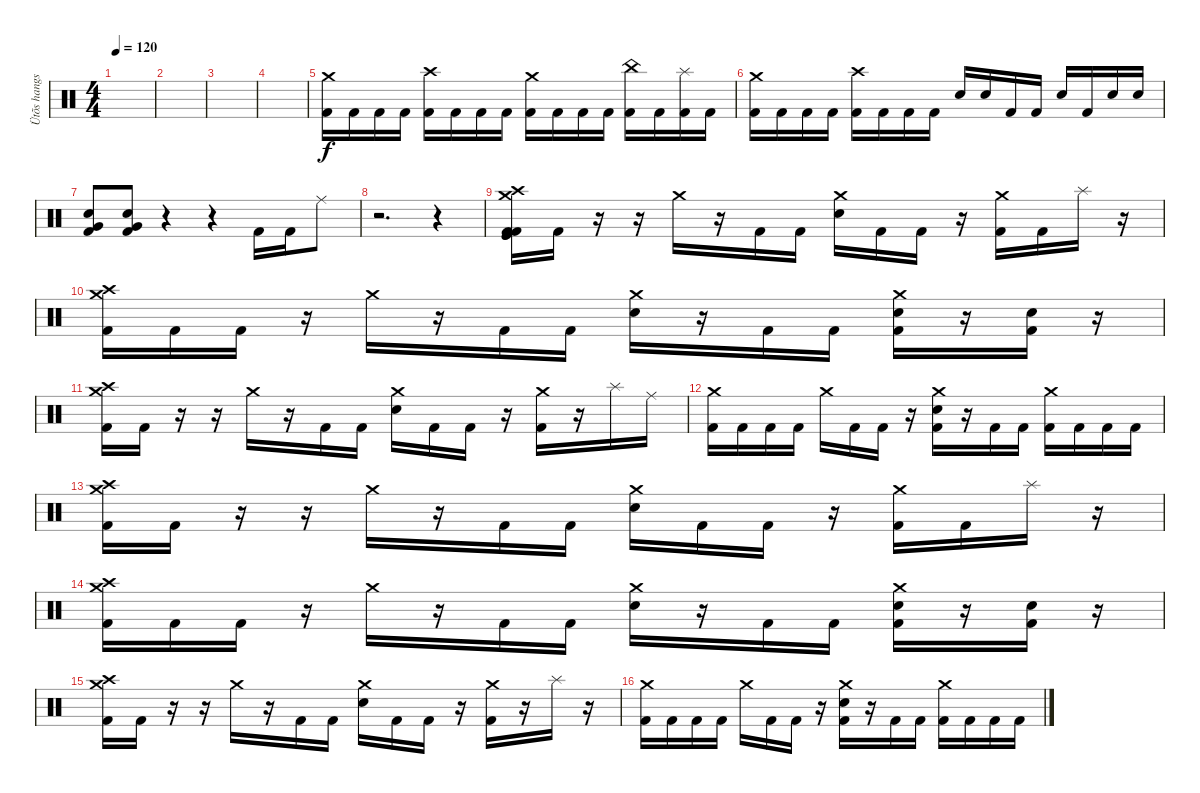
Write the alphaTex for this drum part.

\track ("Ütõs hangszer" "Ütõs hangs") {instrument percussion}
\staff {score}
\articulation defaults
\ts (4 4)
\tempo 120
\clef neutral
\ks c
|
|
|
|
("Crash medium (hit)" "Kick (hit) 2").16 "Kick (hit) 2".16 "Kick (hit) 2".16 "Kick (hit) 2".16 ("Crash high (hit)" "Kick (hit) 2").16 "Kick (hit) 2".16 "Kick (hit) 2".16 "Kick (hit) 2".16 ("Crash medium (hit)" "Kick (hit) 2").16 "Kick (hit) 2".16 "Kick (hit) 2".16 "Kick (hit) 2".16 ("China (hit)" "Kick (hit) 2").16 "Kick (hit) 2".16 ("Splash (hit)" "Kick (hit) 2").16 "Kick (hit) 2".16 |
("Crash medium (hit)" "Kick (hit) 2").16 "Kick (hit) 2".16 "Kick (hit) 2".16 "Kick (hit) 2".16 ("Crash high (hit)" "Kick (hit) 2").16 "Kick (hit) 2".16 "Kick (hit) 2".16 "Kick (hit) 2".16 "Electric Snare (hit)".16 "Electric Snare (hit)".16 "Kick (hit) 2".16 "Kick (hit) 2".16 "Electric Snare (hit)".16 "Kick (hit) 2".16 "Electric Snare (hit)".16 "Electric Snare (hit)".16 |
("Very Low Tom (hit)" "Electric Snare (hit)" "Kick (hit) 2").8 ("Very Low Tom (hit)" "Electric Snare (hit)" "Kick (hit) 2").8 r.4 r.4 "Kick (hit) 2".16 "Kick (hit) 2".16 "Ride (middle)".8 |
r.2{d} r.4 |
("Crash medium (hit)" "Crash high (hit)" "Kick (hit)" "Kick (hit) 2" "Kick (hit)" "Kick (hit) 2").16 "Kick (hit) 2".16 r.16 r.16 "Crash medium (hit)".16 r.16 "Kick (hit) 2".16 "Kick (hit) 2".16 ("Crash medium (hit)" "Electric Snare (hit)").16 "Kick (hit) 2".16 "Kick (hit) 2".16 r.16 ("Crash medium (hit)" "Kick (hit) 2").16 "Kick (hit) 2".16 "Splash (hit)".16 r.16 |
("Crash medium (hit)" "Crash high (hit)" "Kick (hit) 2").16 "Kick (hit) 2".16 "Kick (hit) 2".16 r.16 "Crash medium (hit)".16 r.16 "Kick (hit) 2".16 "Kick (hit) 2".16 ("Crash medium (hit)" "Electric Snare (hit)").16 r.16 "Kick (hit) 2".16 "Kick (hit) 2".16 ("Crash medium (hit)" "Electric Snare (hit)" "Kick (hit) 2").16 r.16 ("Electric Snare (hit)" "Kick (hit) 2").16 r.16 |
("Crash medium (hit)" "Crash high (hit)" "Kick (hit) 2").16 "Kick (hit) 2".16 r.16 r.16 "Crash medium (hit)".16 r.16 "Kick (hit) 2".16 "Kick (hit) 2".16 ("Crash medium (hit)" "Electric Snare (hit)").16 "Kick (hit) 2".16 "Kick (hit) 2".16 r.16 ("Crash medium (hit)" "Kick (hit) 2").16 r.16 "Splash (hit)".16 "Ride (middle)".16 |
("Crash medium (hit)" "Kick (hit) 2").16 "Kick (hit) 2".16 "Kick (hit) 2".16 "Kick (hit) 2".16 "Crash medium (hit)".16 "Kick (hit) 2".16 "Kick (hit) 2".16 r.16 ("Crash medium (hit)" "Electric Snare (hit)" "Kick (hit) 2").16 r.16 "Kick (hit) 2".16 "Kick (hit) 2".16 ("Crash medium (hit)" "Kick (hit) 2").16 "Kick (hit) 2".16 "Kick (hit) 2".16 "Kick (hit) 2".16 |
("Crash medium (hit)" "Crash high (hit)" "Kick (hit) 2").16 "Kick (hit) 2".16 r.16 r.16 "Crash medium (hit)".16 r.16 "Kick (hit) 2".16 "Kick (hit) 2".16 ("Crash medium (hit)" "Electric Snare (hit)").16 "Kick (hit) 2".16 "Kick (hit) 2".16 r.16 ("Crash medium (hit)" "Kick (hit) 2").16 "Kick (hit) 2".16 "Splash (hit)".16 r.16 |
("Crash medium (hit)" "Crash high (hit)" "Kick (hit) 2").16 "Kick (hit) 2".16 "Kick (hit) 2".16 r.16 "Crash medium (hit)".16 r.16 "Kick (hit) 2".16 "Kick (hit) 2".16 ("Crash medium (hit)" "Electric Snare (hit)").16 r.16 "Kick (hit) 2".16 "Kick (hit) 2".16 ("Crash medium (hit)" "Electric Snare (hit)" "Kick (hit) 2").16 r.16 ("Electric Snare (hit)" "Kick (hit) 2").16 r.16 |
("Crash medium (hit)" "Crash high (hit)" "Kick (hit) 2").16 "Kick (hit) 2".16 r.16 r.16 "Crash medium (hit)".16 r.16 "Kick (hit) 2".16 "Kick (hit) 2".16 ("Crash medium (hit)" "Electric Snare (hit)").16 "Kick (hit) 2".16 "Kick (hit) 2".16 r.16 ("Crash medium (hit)" "Kick (hit) 2").16 r.16 "Splash (hit)".16 r.16 |
("Crash medium (hit)" "Kick (hit) 2").16 "Kick (hit) 2".16 "Kick (hit) 2".16 "Kick (hit) 2".16 "Crash medium (hit)".16 "Kick (hit) 2".16 "Kick (hit) 2".16 r.16 ("Crash medium (hit)" "Electric Snare (hit)" "Kick (hit) 2").16 r.16 "Kick (hit) 2".16 "Kick (hit) 2".16 ("Crash medium (hit)" "Kick (hit) 2").16 "Kick (hit) 2".16 "Kick (hit) 2".16 "Kick (hit) 2".16
